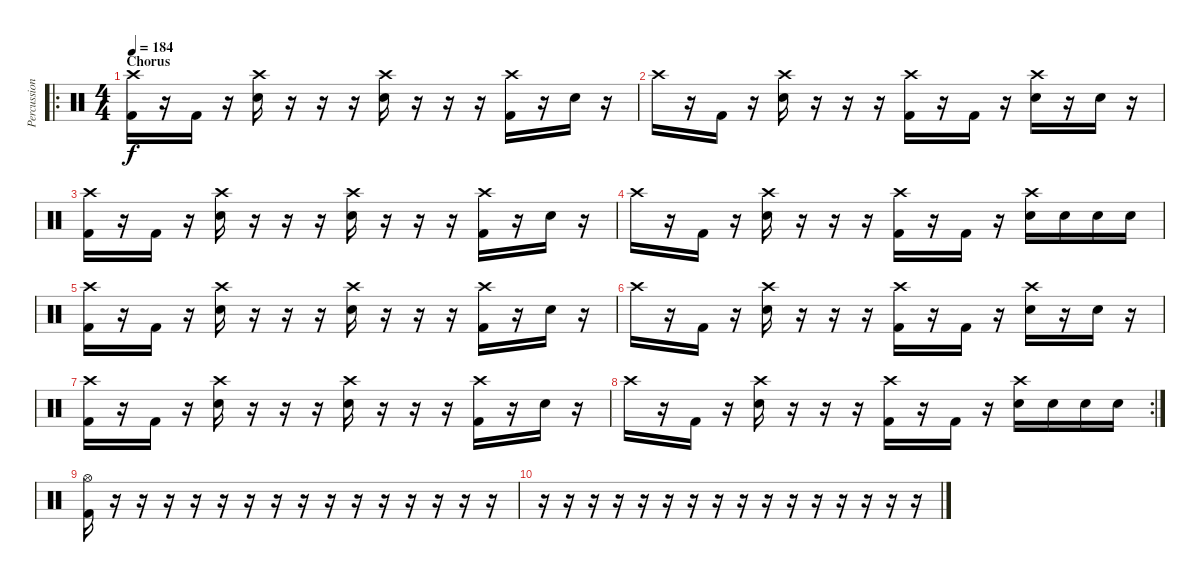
\track ("Percussion" "Percussion") {instrument percussion}
\staff {score}
\articulation defaults
\ro
\ts (4 4)
\section ("" "Chorus")
\tempo 184
\clef neutral
\ks c
("Crash high (hit)" "Kick (hit) 2").16{dy f} r.16 "Kick (hit) 2".16 r.16 ("Crash high (hit)" "Electric Snare (hit)").16 r.16 r.16 r.16 ("Crash high (hit)" "Electric Snare (hit)").16 r.16 r.16 r.16 ("Crash high (hit)" "Kick (hit) 2").16 r.16 "Electric Snare (hit)".16 r.16 |
"Crash high (hit)".16 r.16 "Kick (hit) 2".16 r.16 ("Crash high (hit)" "Electric Snare (hit)").16 r.16 r.16 r.16 ("Crash high (hit)" "Kick (hit) 2").16 r.16 "Kick (hit) 2".16 r.16 ("Crash high (hit)" "Electric Snare (hit)").16 r.16 "Electric Snare (hit)".16 r.16 |
("Crash high (hit)" "Kick (hit) 2").16 r.16 "Kick (hit) 2".16 r.16 ("Crash high (hit)" "Electric Snare (hit)").16 r.16 r.16 r.16 ("Crash high (hit)" "Electric Snare (hit)").16 r.16 r.16 r.16 ("Crash high (hit)" "Kick (hit) 2").16 r.16 "Electric Snare (hit)".16 r.16 |
"Crash high (hit)".16 r.16 "Kick (hit) 2".16 r.16 ("Crash high (hit)" "Electric Snare (hit)").16 r.16 r.16 r.16 ("Crash high (hit)" "Kick (hit) 2").16 r.16 "Kick (hit) 2".16 r.16 ("Crash high (hit)" "Electric Snare (hit)").16 "Electric Snare (hit)".16 "Electric Snare (hit)".16 "Electric Snare (hit)".16 |
("Crash high (hit)" "Kick (hit) 2").16 r.16 "Kick (hit) 2".16 r.16 ("Crash high (hit)" "Electric Snare (hit)").16 r.16 r.16 r.16 ("Crash high (hit)" "Electric Snare (hit)").16 r.16 r.16 r.16 ("Crash high (hit)" "Kick (hit) 2").16 r.16 "Electric Snare (hit)".16 r.16 |
"Crash high (hit)".16 r.16 "Kick (hit) 2".16 r.16 ("Crash high (hit)" "Electric Snare (hit)").16 r.16 r.16 r.16 ("Crash high (hit)" "Kick (hit) 2").16 r.16 "Kick (hit) 2".16 r.16 ("Crash high (hit)" "Electric Snare (hit)").16 r.16 "Electric Snare (hit)".16 r.16 |
("Crash high (hit)" "Kick (hit) 2").16 r.16 "Kick (hit) 2".16 r.16 ("Crash high (hit)" "Electric Snare (hit)").16 r.16 r.16 r.16 ("Crash high (hit)" "Electric Snare (hit)").16 r.16 r.16 r.16 ("Crash high (hit)" "Kick (hit) 2").16 r.16 "Electric Snare (hit)".16 r.16 |
\rc 2 "Crash high (hit)".16
r.16 "Kick (hit) 2".16 r.16 ("Crash high (hit)" "Electric Snare (hit)").16 r.16 r.16 r.16 ("Crash high (hit)" "Kick (hit) 2").16 r.16 "Kick (hit) 2".16 r.16 ("Crash high (hit)" "Electric Snare (hit)").16 "Electric Snare (hit)".16 "Electric Snare (hit)".16 "Electric Snare (hit)".16 |
("Hi-Hat (open)" "Kick (hit) 2").16 r.16 r.16 r.16 r.16 r.16 r.16 r.16 r.16 r.16 r.16 r.16 r.16 r.16 r.16 r.16 |
r.16 r.16 r.16 r.16 r.16 r.16 r.16 r.16 r.16 r.16 r.16 r.16 r.16 r.16 r.16 r.16
